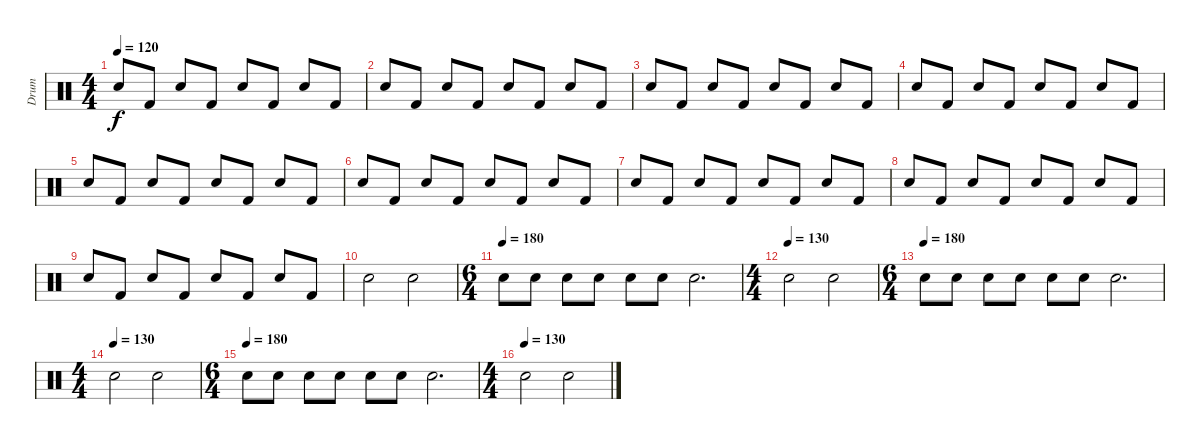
\track ("Drum" "Drum") {instrument percussion}
\staff {score}
\articulation defaults
\ts (4 4)
\tempo 120
\clef neutral
\ks c "Snare (hit) 2".8{dy f} "Kick (hit) 2".8 "Snare (hit) 2".8 "Kick (hit) 2".8 "Snare (hit) 2".8 "Kick (hit) 2".8 "Snare (hit) 2".8 "Kick (hit) 2".8
|
"Snare (hit) 2".8 "Kick (hit) 2".8 "Snare (hit) 2".8 "Kick (hit) 2".8 "Snare (hit) 2".8 "Kick (hit) 2".8 "Snare (hit) 2".8 "Kick (hit) 2".8 |
"Snare (hit) 2".8 "Kick (hit) 2".8 "Snare (hit) 2".8 "Kick (hit) 2".8 "Snare (hit) 2".8 "Kick (hit) 2".8 "Snare (hit) 2".8 "Kick (hit) 2".8 |
"Snare (hit) 2".8 "Kick (hit) 2".8 "Snare (hit) 2".8 "Kick (hit) 2".8 "Snare (hit) 2".8 "Kick (hit) 2".8 "Snare (hit) 2".8 "Kick (hit) 2".8 |
"Snare (hit) 2".8 "Kick (hit) 2".8 "Snare (hit) 2".8 "Kick (hit) 2".8 "Snare (hit) 2".8 "Kick (hit) 2".8 "Snare (hit) 2".8 "Kick (hit) 2".8 |
"Snare (hit) 2".8 "Kick (hit) 2".8 "Snare (hit) 2".8 "Kick (hit) 2".8 "Snare (hit) 2".8 "Kick (hit) 2".8 "Snare (hit) 2".8 "Kick (hit) 2".8 |
"Snare (hit) 2".8 "Kick (hit) 2".8 "Snare (hit) 2".8 "Kick (hit) 2".8 "Snare (hit) 2".8 "Kick (hit) 2".8 "Snare (hit) 2".8 "Kick (hit) 2".8 |
"Snare (hit) 2".8 "Kick (hit) 2".8 "Snare (hit) 2".8 "Kick (hit) 2".8 "Snare (hit) 2".8 "Kick (hit) 2".8 "Snare (hit) 2".8 "Kick (hit) 2".8 |
"Snare (hit) 2".8 "Kick (hit) 2".8 "Snare (hit) 2".8 "Kick (hit) 2".8 "Snare (hit) 2".8 "Kick (hit) 2".8 "Snare (hit) 2".8 "Kick (hit) 2".8 |
"Snare (hit) 2".2 "Snare (hit) 2".2 |
\ts (6 4)
\tempo (180)
"Snare (hit) 2".8 "Snare (hit) 2".8 "Snare (hit) 2".8 "Snare (hit) 2".8 "Snare (hit) 2".8 "Snare (hit) 2".8 "Snare (hit) 2".2{d} |
\ts (4 4)
\tempo (130)
"Snare (hit) 2".2 "Snare (hit) 2".2 |
\ts (6 4)
\tempo (180)
"Snare (hit) 2".8 "Snare (hit) 2".8 "Snare (hit) 2".8 "Snare (hit) 2".8 "Snare (hit) 2".8 "Snare (hit) 2".8 "Snare (hit) 2".2{d} |
\ts (4 4)
\tempo (130)
"Snare (hit) 2".2 "Snare (hit) 2".2 |
\ts (6 4)
\tempo (180)
"Snare (hit) 2".8 "Snare (hit) 2".8 "Snare (hit) 2".8 "Snare (hit) 2".8 "Snare (hit) 2".8 "Snare (hit) 2".8 "Snare (hit) 2".2{d} |
\ts (4 4)
\tempo (130)
"Snare (hit) 2".2 "Snare (hit) 2".2
